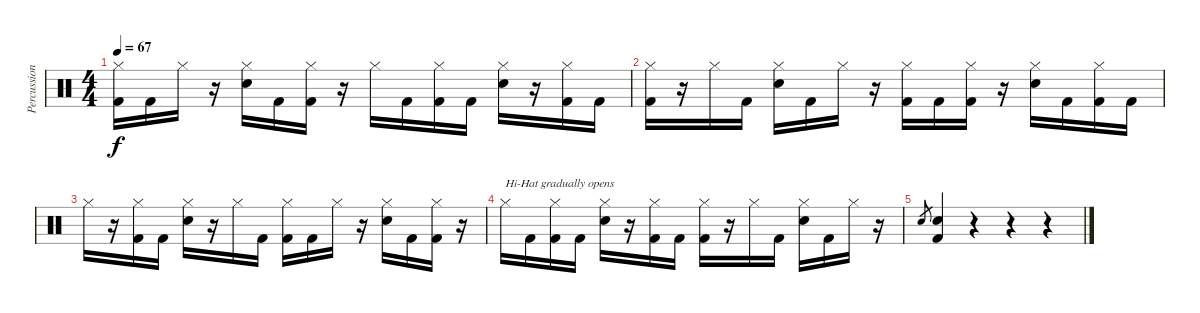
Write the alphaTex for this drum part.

\track ("Percussion" "Percussion") {instrument percussion}
\staff {score}
\articulation defaults
\ts (4 4)
\tempo 67
\clef neutral
\ks c
("Hi-Hat (closed)" "Kick (hit) 2").16{dy f} "Kick (hit) 2".16 "Hi-Hat (closed)".16 r.16 ("Hi-Hat (closed)" "Electric Snare (hit)").16 "Kick (hit) 2".16 ("Hi-Hat (closed)" "Kick (hit) 2").16 r.16 "Hi-Hat (closed)".16 "Kick (hit) 2".16 ("Hi-Hat (closed)" "Kick (hit) 2").16 "Kick (hit) 2".16 ("Hi-Hat (closed)" "Electric Snare (hit)").16 r.16 ("Hi-Hat (closed)" "Kick (hit) 2").16 "Kick (hit) 2".16 |
("Hi-Hat (closed)" "Kick (hit) 2").16 r.16 "Hi-Hat (closed)".16 "Kick (hit) 2".16 ("Hi-Hat (closed)" "Electric Snare (hit)").16 "Kick (hit) 2".16 "Hi-Hat (closed)".16 r.16 ("Hi-Hat (closed)" "Kick (hit) 2").16 "Kick (hit) 2".16 ("Hi-Hat (closed)" "Kick (hit) 2").16 r.16 ("Hi-Hat (closed)" "Electric Snare (hit)").16 "Kick (hit) 2".16 ("Hi-Hat (closed)" "Kick (hit) 2").16 "Kick (hit) 2".16 |
"Hi-Hat (closed)".16 r.16 ("Hi-Hat (closed)" "Kick (hit) 2").16 "Kick (hit) 2".16 ("Hi-Hat (closed)" "Electric Snare (hit)").16 r.16 "Hi-Hat (closed)".16 "Kick (hit) 2".16 ("Hi-Hat (closed)" "Kick (hit) 2").16 "Kick (hit) 2".16 "Hi-Hat (closed)".16 r.16 ("Hi-Hat (closed)" "Electric Snare (hit)").16 "Kick (hit) 2".16 ("Hi-Hat (closed)" "Kick (hit) 2").16 r.16 |
"Hi-Hat (closed)".16{txt "Hi-Hat gradually opens"} "Kick (hit) 2".16 ("Hi-Hat (closed)" "Kick (hit) 2").16 "Kick (hit) 2".16 ("Hi-Hat (closed)" "Electric Snare (hit)").16 r.16 ("Hi-Hat (closed)" "Kick (hit) 2").16 "Kick (hit) 2".16 ("Hi-Hat (closed)" "Kick (hit) 2").16 r.16 "Hi-Hat (closed)".16 "Kick (hit) 2".16 ("Hi-Hat (closed)" "Electric Snare (hit)").16 "Kick (hit) 2".16 "Hi-Hat (closed)".16 r.16 |
"Electric Snare (hit)"{h}.8{gr} ("Electric Snare (hit)" "Kick (hit) 2").4 r.4 r.4 r.4
